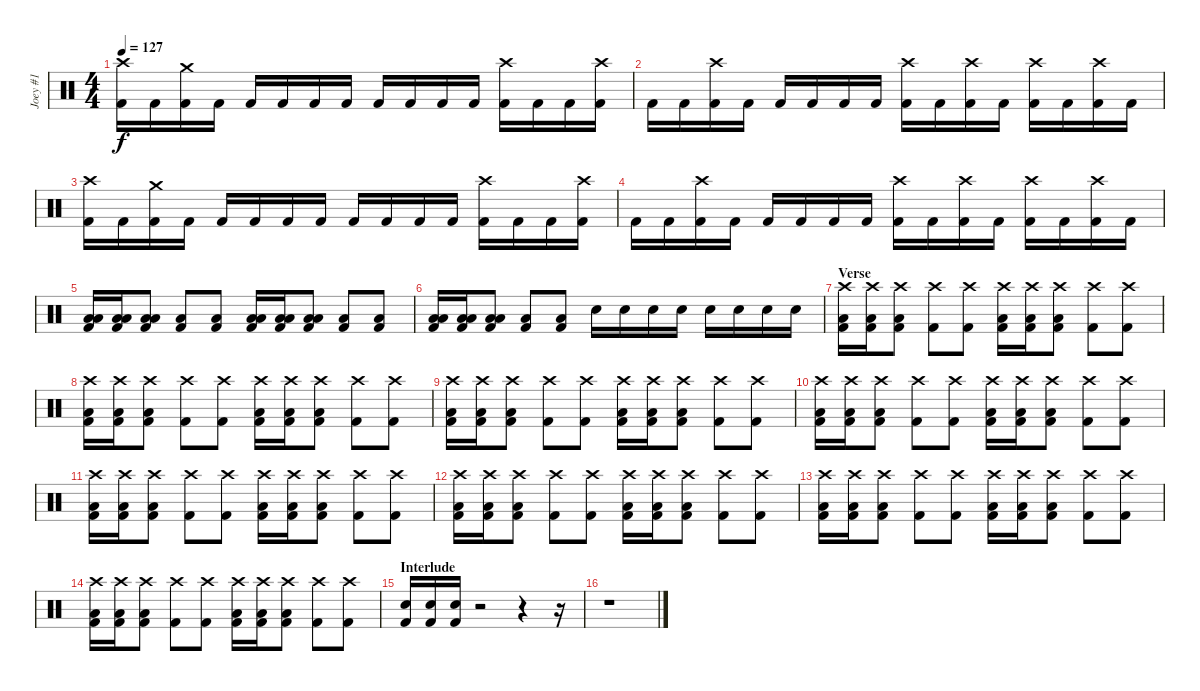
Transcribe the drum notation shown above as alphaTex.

\track ("Joey #1" "Joey #1") {instrument percussion}
\staff {score}
\articulation defaults
\ts (4 4)
\tempo 127
\clef neutral
\ks c
("Crash high (hit)" "Kick (hit) 2").16{dy f} "Kick (hit) 2".16 ("Crash medium (hit)" "Kick (hit) 2").16 "Kick (hit) 2".16 "Kick (hit) 2".16 "Kick (hit) 2".16 "Kick (hit) 2".16 "Kick (hit) 2".16 "Kick (hit) 2".16 "Kick (hit) 2".16 "Kick (hit) 2".16 "Kick (hit) 2".16 ("Crash high (hit)" "Kick (hit) 2").16 "Kick (hit) 2".16 "Kick (hit) 2".16 ("Crash high (hit)" "Kick (hit) 2").16 |
"Kick (hit) 2".16 "Kick (hit) 2".16 ("Crash high (hit)" "Kick (hit) 2").16 "Kick (hit) 2".16 "Kick (hit) 2".16 "Kick (hit) 2".16 "Kick (hit) 2".16 "Kick (hit) 2".16 ("Crash high (hit)" "Kick (hit) 2").16 "Kick (hit) 2".16 ("Crash high (hit)" "Kick (hit) 2").16 "Kick (hit) 2".16 ("Crash high (hit)" "Kick (hit) 2").16 "Kick (hit) 2".16 ("Crash high (hit)" "Kick (hit) 2").16 "Kick (hit) 2".16 |
("Crash high (hit)" "Kick (hit) 2").16 "Kick (hit) 2".16 ("Crash medium (hit)" "Kick (hit) 2").16 "Kick (hit) 2".16 "Kick (hit) 2".16 "Kick (hit) 2".16 "Kick (hit) 2".16 "Kick (hit) 2".16 "Kick (hit) 2".16 "Kick (hit) 2".16 "Kick (hit) 2".16 "Kick (hit) 2".16 ("Crash high (hit)" "Kick (hit) 2").16 "Kick (hit) 2".16 "Kick (hit) 2".16 ("Crash high (hit)" "Kick (hit) 2").16 |
"Kick (hit) 2".16 "Kick (hit) 2".16 ("Crash high (hit)" "Kick (hit) 2").16 "Kick (hit) 2".16 "Kick (hit) 2".16 "Kick (hit) 2".16 "Kick (hit) 2".16 "Kick (hit) 2".16 ("Crash high (hit)" "Kick (hit) 2").16 "Kick (hit) 2".16 ("Crash high (hit)" "Kick (hit) 2").16 "Kick (hit) 2".16 ("Crash high (hit)" "Kick (hit) 2").16 "Kick (hit) 2".16 ("Crash high (hit)" "Kick (hit) 2").16 "Kick (hit) 2".16 |
("Low Tom (hit)" "Kick (hit) 2" "Low Floor Tom (hit)").16 ("Low Tom (hit)" "Kick (hit) 2" "Low Floor Tom (hit)").16 ("Low Tom (hit)" "Kick (hit) 2" "Low Floor Tom (hit)").8 ("Low Tom (hit)" "Kick (hit) 2").8 ("Low Tom (hit)" "Kick (hit) 2").8 ("Low Tom (hit)" "Kick (hit) 2" "Low Floor Tom (hit)").16 ("Low Tom (hit)" "Kick (hit) 2" "Low Floor Tom (hit)").16 ("Low Tom (hit)" "Kick (hit) 2" "Low Floor Tom (hit)").8 ("Low Tom (hit)" "Kick (hit) 2").8 ("Low Tom (hit)" "Kick (hit) 2").8 |
("Low Tom (hit)" "Kick (hit) 2" "Low Floor Tom (hit)").16 ("Low Tom (hit)" "Kick (hit) 2" "Low Floor Tom (hit)").16 ("Low Tom (hit)" "Kick (hit) 2" "Low Floor Tom (hit)").8 ("Low Tom (hit)" "Kick (hit) 2").8 ("Low Tom (hit)" "Kick (hit) 2").8 "Electric Snare (hit)".16 "Electric Snare (hit)".16 "Electric Snare (hit)".16 "Electric Snare (hit)".16 "Electric Snare (hit)".16 "Electric Snare (hit)".16 "Electric Snare (hit)".16 "Electric Snare (hit)".16 |
\section ("" "Verse")
("Crash high (hit)" "Kick (hit) 2" "Low Floor Tom (hit)").16 ("Crash high (hit)" "Kick (hit) 2" "Low Floor Tom (hit)").16 ("Crash high (hit)" "Kick (hit) 2" "Low Floor Tom (hit)").8 ("Crash high (hit)" "Kick (hit) 2").8 ("Crash high (hit)" "Kick (hit) 2").8 ("Crash high (hit)" "Kick (hit) 2" "Low Floor Tom (hit)").16 ("Crash high (hit)" "Kick (hit) 2" "Low Floor Tom (hit)").16 ("Crash high (hit)" "Kick (hit) 2" "Low Floor Tom (hit)").8 ("Crash high (hit)" "Kick (hit) 2").8 ("Crash high (hit)" "Kick (hit) 2").8 |
("Crash high (hit)" "Kick (hit) 2" "Low Floor Tom (hit)").16 ("Crash high (hit)" "Kick (hit) 2" "Low Floor Tom (hit)").16 ("Crash high (hit)" "Kick (hit) 2" "Low Floor Tom (hit)").8 ("Crash high (hit)" "Kick (hit) 2").8 ("Crash high (hit)" "Kick (hit) 2").8 ("Crash high (hit)" "Kick (hit) 2" "Low Floor Tom (hit)").16 ("Crash high (hit)" "Kick (hit) 2" "Low Floor Tom (hit)").16 ("Crash high (hit)" "Kick (hit) 2" "Low Floor Tom (hit)").8 ("Crash high (hit)" "Kick (hit) 2").8 ("Crash high (hit)" "Kick (hit) 2").8 |
("Crash high (hit)" "Kick (hit) 2" "Low Floor Tom (hit)").16 ("Crash high (hit)" "Kick (hit) 2" "Low Floor Tom (hit)").16 ("Crash high (hit)" "Kick (hit) 2" "Low Floor Tom (hit)").8 ("Crash high (hit)" "Kick (hit) 2").8 ("Crash high (hit)" "Kick (hit) 2").8 ("Crash high (hit)" "Kick (hit) 2" "Low Floor Tom (hit)").16 ("Crash high (hit)" "Kick (hit) 2" "Low Floor Tom (hit)").16 ("Crash high (hit)" "Kick (hit) 2" "Low Floor Tom (hit)").8 ("Crash high (hit)" "Kick (hit) 2").8 ("Crash high (hit)" "Kick (hit) 2").8 |
("Crash high (hit)" "Kick (hit) 2" "Low Floor Tom (hit)").16 ("Crash high (hit)" "Kick (hit) 2" "Low Floor Tom (hit)").16 ("Crash high (hit)" "Kick (hit) 2" "Low Floor Tom (hit)").8 ("Crash high (hit)" "Kick (hit) 2").8 ("Crash high (hit)" "Kick (hit) 2").8 ("Crash high (hit)" "Kick (hit) 2" "Low Floor Tom (hit)").16 ("Crash high (hit)" "Kick (hit) 2" "Low Floor Tom (hit)").16 ("Crash high (hit)" "Kick (hit) 2" "Low Floor Tom (hit)").8 ("Crash high (hit)" "Kick (hit) 2").8 ("Crash high (hit)" "Kick (hit) 2").8 |
("Crash high (hit)" "Kick (hit) 2" "Low Floor Tom (hit)").16 ("Crash high (hit)" "Kick (hit) 2" "Low Floor Tom (hit)").16 ("Crash high (hit)" "Kick (hit) 2" "Low Floor Tom (hit)").8 ("Crash high (hit)" "Kick (hit) 2").8 ("Crash high (hit)" "Kick (hit) 2").8 ("Crash high (hit)" "Kick (hit) 2" "Low Floor Tom (hit)").16 ("Crash high (hit)" "Kick (hit) 2" "Low Floor Tom (hit)").16 ("Crash high (hit)" "Kick (hit) 2" "Low Floor Tom (hit)").8 ("Crash high (hit)" "Kick (hit) 2").8 ("Crash high (hit)" "Kick (hit) 2").8 |
("Crash high (hit)" "Kick (hit) 2" "Low Floor Tom (hit)").16 ("Crash high (hit)" "Kick (hit) 2" "Low Floor Tom (hit)").16 ("Crash high (hit)" "Kick (hit) 2" "Low Floor Tom (hit)").8 ("Crash high (hit)" "Kick (hit) 2").8 ("Crash high (hit)" "Kick (hit) 2").8 ("Crash high (hit)" "Kick (hit) 2" "Low Floor Tom (hit)").16 ("Crash high (hit)" "Kick (hit) 2" "Low Floor Tom (hit)").16 ("Crash high (hit)" "Kick (hit) 2" "Low Floor Tom (hit)").8 ("Crash high (hit)" "Kick (hit) 2").8 ("Crash high (hit)" "Kick (hit) 2").8 |
("Crash high (hit)" "Kick (hit) 2" "Low Floor Tom (hit)").16 ("Crash high (hit)" "Kick (hit) 2" "Low Floor Tom (hit)").16 ("Crash high (hit)" "Kick (hit) 2" "Low Floor Tom (hit)").8 ("Crash high (hit)" "Kick (hit) 2").8 ("Crash high (hit)" "Kick (hit) 2").8 ("Crash high (hit)" "Kick (hit) 2" "Low Floor Tom (hit)").16 ("Crash high (hit)" "Kick (hit) 2" "Low Floor Tom (hit)").16 ("Crash high (hit)" "Kick (hit) 2" "Low Floor Tom (hit)").8 ("Crash high (hit)" "Kick (hit) 2").8 ("Crash high (hit)" "Kick (hit) 2").8 |
("Crash high (hit)" "Kick (hit) 2" "Low Floor Tom (hit)").16 ("Crash high (hit)" "Kick (hit) 2" "Low Floor Tom (hit)").16 ("Crash high (hit)" "Kick (hit) 2" "Low Floor Tom (hit)").8 ("Crash high (hit)" "Kick (hit) 2").8 ("Crash high (hit)" "Kick (hit) 2").8 ("Crash high (hit)" "Kick (hit) 2" "Low Floor Tom (hit)").16 ("Crash high (hit)" "Kick (hit) 2" "Low Floor Tom (hit)").16 ("Crash high (hit)" "Kick (hit) 2" "Low Floor Tom (hit)").8 ("Crash high (hit)" "Kick (hit) 2").8 ("Crash high (hit)" "Kick (hit) 2").8 |
\section ("" "Interlude")
("Electric Snare (hit)" "Kick (hit) 2").16 ("Electric Snare (hit)" "Kick (hit) 2").16 ("Electric Snare (hit)" "Kick (hit) 2").16 r.2 r.4 r.16 |
r.1
